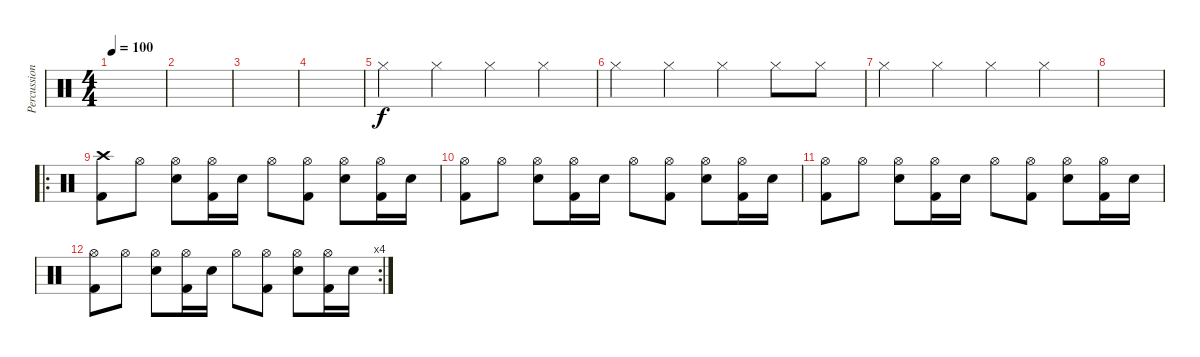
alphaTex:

\track ("Percussion" "Percussion") {instrument percussion}
\staff {score}
\articulation defaults
\ts (4 4)
\tempo 100
\clef neutral
\ks c
|
|
|
|
"Hi-Hat (closed)".4 "Hi-Hat (closed)".4 "Hi-Hat (closed)".4 "Hi-Hat (closed)".4 |
"Hi-Hat (closed)".4 "Hi-Hat (closed)".4 "Hi-Hat (closed)".4 "Hi-Hat (closed)".8 "Hi-Hat (closed)".8 |
"Hi-Hat (closed)".4 "Hi-Hat (closed)".4 "Hi-Hat (closed)".4 "Hi-Hat (closed)".4 |
|
\ro
("Crash high (hit)" "Kick (hit) 2").8 "Hi-Hat (open)".8 ("Hi-Hat (open)" "Electric Snare (hit)").8 ("Hi-Hat (open)" "Kick (hit) 2").16 "Electric Snare (hit)".16 "Hi-Hat (open)".8 ("Hi-Hat (open)" "Kick (hit) 2").8 ("Hi-Hat (open)" "Electric Snare (hit)").8 ("Hi-Hat (open)" "Kick (hit) 2").16 "Electric Snare (hit)".16 |
("Hi-Hat (open)" "Kick (hit) 2").8 "Hi-Hat (open)".8 ("Hi-Hat (open)" "Electric Snare (hit)").8 ("Hi-Hat (open)" "Kick (hit) 2").16 "Electric Snare (hit)".16 "Hi-Hat (open)".8 ("Hi-Hat (open)" "Kick (hit) 2").8 ("Hi-Hat (open)" "Electric Snare (hit)").8 ("Hi-Hat (open)" "Kick (hit) 2").16 "Electric Snare (hit)".16 |
("Hi-Hat (open)" "Kick (hit) 2").8 "Hi-Hat (open)".8 ("Hi-Hat (open)" "Electric Snare (hit)").8 ("Hi-Hat (open)" "Kick (hit) 2").16 "Electric Snare (hit)".16 "Hi-Hat (open)".8 ("Hi-Hat (open)" "Kick (hit) 2").8 ("Hi-Hat (open)" "Electric Snare (hit)").8 ("Hi-Hat (open)" "Kick (hit) 2").16 "Electric Snare (hit)".16 |
\rc 4
("Hi-Hat (open)" "Kick (hit) 2").8 "Hi-Hat (open)".8 ("Hi-Hat (open)" "Electric Snare (hit)").8 ("Hi-Hat (open)" "Kick (hit) 2").16 "Electric Snare (hit)".16 "Hi-Hat (open)".8 ("Hi-Hat (open)" "Kick (hit) 2").8 ("Hi-Hat (open)" "Electric Snare (hit)").8 ("Hi-Hat (open)" "Kick (hit) 2").16 "Electric Snare (hit)".16
